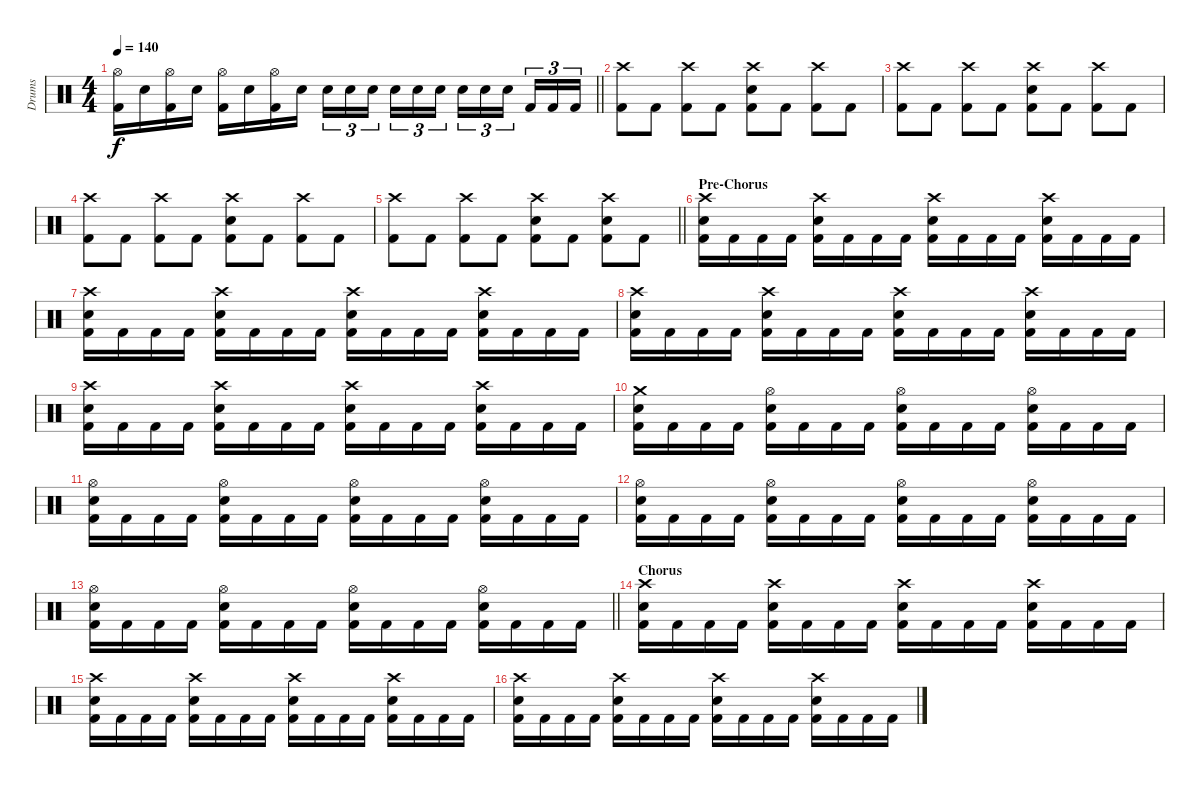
\track ("Drums" "Drums") {instrument percussion}
\staff {score}
\articulation defaults
\ts (4 4)
\tempo 140
\clef neutral
\barLineRight lightlight
\ks c
("Hi-Hat (open)" "Kick (hit) 2").16{dy f} "Electric Snare (hit)".16 ("Hi-Hat (open)" "Kick (hit) 2").16 "Electric Snare (hit)".16 ("Hi-Hat (open)" "Kick (hit) 2").16 "Electric Snare (hit)".16 ("Hi-Hat (open)" "Kick (hit) 2").16 "Electric Snare (hit)".16 "Electric Snare (hit)".16{tu (3 2)} "Electric Snare (hit)".16{tu (3 2)} "Electric Snare (hit)".16{tu (3 2)} "Electric Snare (hit)".16{tu (3 2)} "Electric Snare (hit)".16{tu (3 2)} "Electric Snare (hit)".16{tu (3 2)} "Electric Snare (hit)".16{tu (3 2)} "Electric Snare (hit)".16{tu (3 2)} "Electric Snare (hit)".16{tu (3 2)} "Kick (hit) 2".16{tu (3 2)} "Kick (hit) 2".16{tu (3 2)} "Kick (hit) 2".16{tu (3 2)} |
\section ("" "")
("Crash high (hit)" "Kick (hit) 2").8 "Kick (hit) 2".8 ("Crash high (hit)" "Kick (hit) 2").8 "Kick (hit) 2".8 ("Crash high (hit)" "Electric Snare (hit)" "Kick (hit) 2").8 "Kick (hit) 2".8 ("Crash high (hit)" "Kick (hit) 2").8 "Kick (hit) 2".8 |
("Crash high (hit)" "Kick (hit) 2").8 "Kick (hit) 2".8 ("Crash high (hit)" "Kick (hit) 2").8 "Kick (hit) 2".8 ("Crash high (hit)" "Electric Snare (hit)" "Kick (hit) 2").8 "Kick (hit) 2".8 ("Crash high (hit)" "Kick (hit) 2").8 "Kick (hit) 2".8 |
("Crash high (hit)" "Kick (hit) 2").8 "Kick (hit) 2".8 ("Crash high (hit)" "Kick (hit) 2").8 "Kick (hit) 2".8 ("Crash high (hit)" "Electric Snare (hit)" "Kick (hit) 2").8 "Kick (hit) 2".8 ("Crash high (hit)" "Kick (hit) 2").8 "Kick (hit) 2".8 |
\barLineRight lightlight
("Crash high (hit)" "Kick (hit) 2").8 "Kick (hit) 2".8 ("Crash high (hit)" "Kick (hit) 2").8 "Kick (hit) 2".8 ("Crash high (hit)" "Electric Snare (hit)" "Kick (hit) 2").8 "Kick (hit) 2".8 ("Crash high (hit)" "Electric Snare (hit)" "Kick (hit) 2").8 "Kick (hit) 2".8 |
\section ("" "Pre-Chorus")
("Crash high (hit)" "Electric Snare (hit)" "Kick (hit) 2").16 "Kick (hit) 2".16 "Kick (hit) 2".16 "Kick (hit) 2".16 ("Crash high (hit)" "Electric Snare (hit)" "Kick (hit) 2").16 "Kick (hit) 2".16 "Kick (hit) 2".16 "Kick (hit) 2".16 ("Crash high (hit)" "Electric Snare (hit)" "Kick (hit) 2").16 "Kick (hit) 2".16 "Kick (hit) 2".16 "Kick (hit) 2".16 ("Crash high (hit)" "Electric Snare (hit)" "Kick (hit) 2").16 "Kick (hit) 2".16 "Kick (hit) 2".16 "Kick (hit) 2".16 |
("Crash high (hit)" "Electric Snare (hit)" "Kick (hit) 2").16 "Kick (hit) 2".16 "Kick (hit) 2".16 "Kick (hit) 2".16 ("Crash high (hit)" "Electric Snare (hit)" "Kick (hit) 2").16 "Kick (hit) 2".16 "Kick (hit) 2".16 "Kick (hit) 2".16 ("Crash high (hit)" "Electric Snare (hit)" "Kick (hit) 2").16 "Kick (hit) 2".16 "Kick (hit) 2".16 "Kick (hit) 2".16 ("Crash high (hit)" "Electric Snare (hit)" "Kick (hit) 2").16 "Kick (hit) 2".16 "Kick (hit) 2".16 "Kick (hit) 2".16 |
("Crash high (hit)" "Electric Snare (hit)" "Kick (hit) 2").16 "Kick (hit) 2".16 "Kick (hit) 2".16 "Kick (hit) 2".16 ("Crash high (hit)" "Electric Snare (hit)" "Kick (hit) 2").16 "Kick (hit) 2".16 "Kick (hit) 2".16 "Kick (hit) 2".16 ("Crash high (hit)" "Electric Snare (hit)" "Kick (hit) 2").16 "Kick (hit) 2".16 "Kick (hit) 2".16 "Kick (hit) 2".16 ("Crash high (hit)" "Electric Snare (hit)" "Kick (hit) 2").16 "Kick (hit) 2".16 "Kick (hit) 2".16 "Kick (hit) 2".16 |
("Crash high (hit)" "Electric Snare (hit)" "Kick (hit) 2").16 "Kick (hit) 2".16 "Kick (hit) 2".16 "Kick (hit) 2".16 ("Crash high (hit)" "Electric Snare (hit)" "Kick (hit) 2").16 "Kick (hit) 2".16 "Kick (hit) 2".16 "Kick (hit) 2".16 ("Crash high (hit)" "Electric Snare (hit)" "Kick (hit) 2").16 "Kick (hit) 2".16 "Kick (hit) 2".16 "Kick (hit) 2".16 ("Crash high (hit)" "Electric Snare (hit)" "Kick (hit) 2").16 "Kick (hit) 2".16 "Kick (hit) 2".16 "Kick (hit) 2".16 |
("Crash medium (hit)" "Electric Snare (hit)" "Kick (hit) 2").16 "Kick (hit) 2".16 "Kick (hit) 2".16 "Kick (hit) 2".16 ("Hi-Hat (open)" "Electric Snare (hit)" "Kick (hit) 2").16 "Kick (hit) 2".16 "Kick (hit) 2".16 "Kick (hit) 2".16 ("Hi-Hat (open)" "Electric Snare (hit)" "Kick (hit) 2").16 "Kick (hit) 2".16 "Kick (hit) 2".16 "Kick (hit) 2".16 ("Hi-Hat (open)" "Electric Snare (hit)" "Kick (hit) 2").16 "Kick (hit) 2".16 "Kick (hit) 2".16 "Kick (hit) 2".16 |
("Hi-Hat (open)" "Electric Snare (hit)" "Kick (hit) 2").16 "Kick (hit) 2".16 "Kick (hit) 2".16 "Kick (hit) 2".16 ("Hi-Hat (open)" "Electric Snare (hit)" "Kick (hit) 2").16 "Kick (hit) 2".16 "Kick (hit) 2".16 "Kick (hit) 2".16 ("Hi-Hat (open)" "Electric Snare (hit)" "Kick (hit) 2").16 "Kick (hit) 2".16 "Kick (hit) 2".16 "Kick (hit) 2".16 ("Hi-Hat (open)" "Electric Snare (hit)" "Kick (hit) 2").16 "Kick (hit) 2".16 "Kick (hit) 2".16 "Kick (hit) 2".16 |
("Hi-Hat (open)" "Electric Snare (hit)" "Kick (hit) 2").16 "Kick (hit) 2".16 "Kick (hit) 2".16 "Kick (hit) 2".16 ("Hi-Hat (open)" "Electric Snare (hit)" "Kick (hit) 2").16 "Kick (hit) 2".16 "Kick (hit) 2".16 "Kick (hit) 2".16 ("Hi-Hat (open)" "Electric Snare (hit)" "Kick (hit) 2").16 "Kick (hit) 2".16 "Kick (hit) 2".16 "Kick (hit) 2".16 ("Hi-Hat (open)" "Electric Snare (hit)" "Kick (hit) 2").16 "Kick (hit) 2".16 "Kick (hit) 2".16 "Kick (hit) 2".16 |
\barLineRight lightlight
("Hi-Hat (open)" "Electric Snare (hit)" "Kick (hit) 2").16 "Kick (hit) 2".16 "Kick (hit) 2".16 "Kick (hit) 2".16 ("Hi-Hat (open)" "Electric Snare (hit)" "Kick (hit) 2").16 "Kick (hit) 2".16 "Kick (hit) 2".16 "Kick (hit) 2".16 ("Hi-Hat (open)" "Electric Snare (hit)" "Kick (hit) 2").16 "Kick (hit) 2".16 "Kick (hit) 2".16 "Kick (hit) 2".16 ("Hi-Hat (open)" "Electric Snare (hit)" "Kick (hit) 2").16 "Kick (hit) 2".16 "Kick (hit) 2".16 "Kick (hit) 2".16 |
\section ("" "Chorus")
("Crash high (hit)" "Electric Snare (hit)" "Kick (hit) 2").16 "Kick (hit) 2".16 "Kick (hit) 2".16 "Kick (hit) 2".16 ("Crash high (hit)" "Electric Snare (hit)" "Kick (hit) 2").16 "Kick (hit) 2".16 "Kick (hit) 2".16 "Kick (hit) 2".16 ("Crash high (hit)" "Electric Snare (hit)" "Kick (hit) 2").16 "Kick (hit) 2".16 "Kick (hit) 2".16 "Kick (hit) 2".16 ("Crash high (hit)" "Electric Snare (hit)" "Kick (hit) 2").16 "Kick (hit) 2".16 "Kick (hit) 2".16 "Kick (hit) 2".16 |
("Crash high (hit)" "Electric Snare (hit)" "Kick (hit) 2").16 "Kick (hit) 2".16 "Kick (hit) 2".16 "Kick (hit) 2".16 ("Crash high (hit)" "Electric Snare (hit)" "Kick (hit) 2").16 "Kick (hit) 2".16 "Kick (hit) 2".16 "Kick (hit) 2".16 ("Crash high (hit)" "Electric Snare (hit)" "Kick (hit) 2").16 "Kick (hit) 2".16 "Kick (hit) 2".16 "Kick (hit) 2".16 ("Crash high (hit)" "Electric Snare (hit)" "Kick (hit) 2").16 "Kick (hit) 2".16 "Kick (hit) 2".16 "Kick (hit) 2".16 |
("Crash high (hit)" "Electric Snare (hit)" "Kick (hit) 2").16 "Kick (hit) 2".16 "Kick (hit) 2".16 "Kick (hit) 2".16 ("Crash high (hit)" "Electric Snare (hit)" "Kick (hit) 2").16 "Kick (hit) 2".16 "Kick (hit) 2".16 "Kick (hit) 2".16 ("Crash high (hit)" "Electric Snare (hit)" "Kick (hit) 2").16 "Kick (hit) 2".16 "Kick (hit) 2".16 "Kick (hit) 2".16 ("Crash high (hit)" "Electric Snare (hit)" "Kick (hit) 2").16 "Kick (hit) 2".16 "Kick (hit) 2".16 "Kick (hit) 2".16
